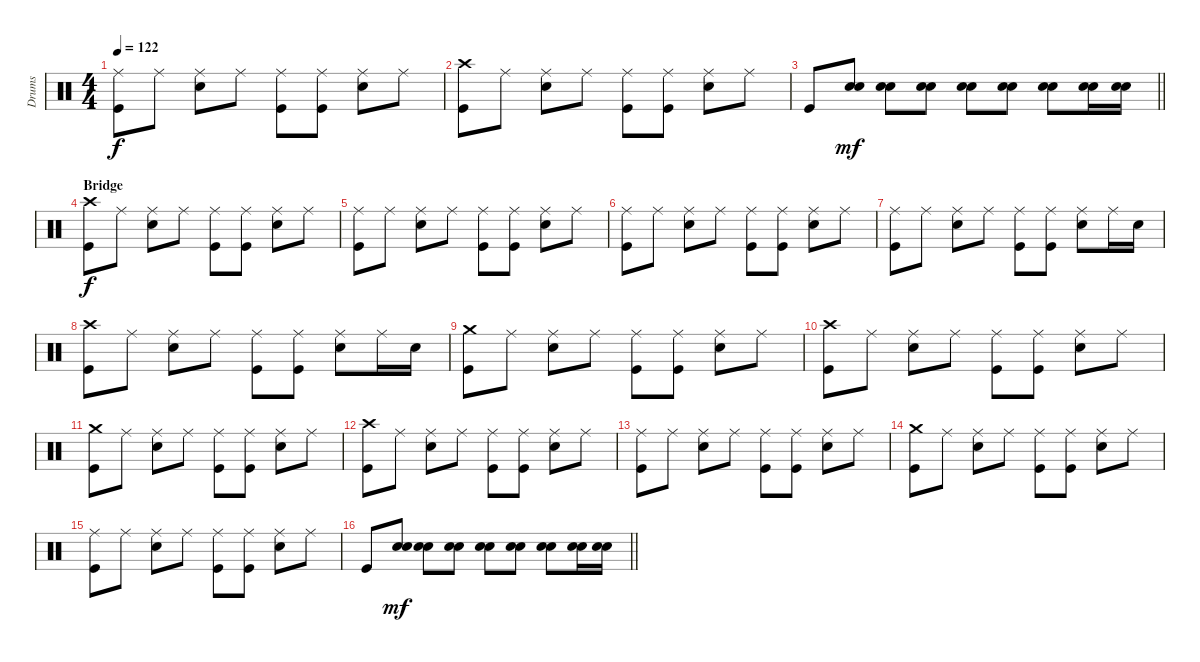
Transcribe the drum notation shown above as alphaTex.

\track ("Drums" "Drums") {instrument percussion}
\staff {score}
\articulation defaults
\ts (4 4)
\tempo 122
\clef neutral
\ks c
("Ride (middle)" "Kick (hit)").8{dy f} "Ride (middle)".8 ("Ride (middle)" "Electric Snare (hit)").8 "Ride (middle)".8 ("Ride (middle)" "Kick (hit)").8 ("Ride (middle)" "Kick (hit)").8 ("Ride (middle)" "Electric Snare (hit)").8 "Ride (middle)".8 |
("Crash high (hit)" "Kick (hit)").8 "Ride (middle)".8 ("Ride (middle)" "Electric Snare (hit)").8 "Ride (middle)".8 ("Ride (middle)" "Kick (hit)").8 ("Ride (middle)" "Kick (hit)").8 ("Ride (middle)" "Electric Snare (hit)").8 "Ride (middle)".8 |
\barLineRight lightlight "Kick (hit)".8
("Electric Snare (hit)" "Snare (hit) 2").8{dy mf} ("Electric Snare (hit)" "Snare (hit) 2").8 ("Electric Snare (hit)" "Snare (hit) 2").8 ("Electric Snare (hit)" "Snare (hit) 2").8 ("Electric Snare (hit)" "Snare (hit) 2").8 ("Electric Snare (hit)" "Snare (hit) 2").8 ("Electric Snare (hit)" "Snare (hit) 2").16 ("Electric Snare (hit)" "Snare (hit) 2").16 |
\section ("" "Bridge")
("Crash high (hit)" "Kick (hit)").8{dy f} "Ride (middle)".8 ("Ride (middle)" "Electric Snare (hit)").8 "Ride (middle)".8 ("Ride (middle)" "Kick (hit)").8 ("Ride (middle)" "Kick (hit)").8 ("Ride (middle)" "Electric Snare (hit)").8 "Ride (middle)".8 |
("Ride (middle)" "Kick (hit)").8 "Ride (middle)".8 ("Ride (middle)" "Electric Snare (hit)").8 "Ride (middle)".8 ("Ride (middle)" "Kick (hit)").8 ("Ride (middle)" "Kick (hit)").8 ("Ride (middle)" "Electric Snare (hit)").8 "Ride (middle)".8 |
("Ride (middle)" "Kick (hit)").8 "Ride (middle)".8 ("Ride (middle)" "Electric Snare (hit)").8 "Ride (middle)".8 ("Ride (middle)" "Kick (hit)").8 ("Ride (middle)" "Kick (hit)").8 ("Ride (middle)" "Electric Snare (hit)").8 "Ride (middle)".8 |
("Ride (middle)" "Kick (hit)").8 "Ride (middle)".8 ("Ride (middle)" "Electric Snare (hit)").8 "Ride (middle)".8 ("Ride (middle)" "Kick (hit)").8 ("Ride (middle)" "Kick (hit)").8 ("Ride (middle)" "Electric Snare (hit)").8 "Ride (middle)".16 "Electric Snare (hit)".16 |
("Crash high (hit)" "Kick (hit)").8 "Ride (middle)".8 ("Ride (middle)" "Electric Snare (hit)").8 "Ride (middle)".8 ("Ride (middle)" "Kick (hit)").8 ("Ride (middle)" "Kick (hit)").8 ("Ride (middle)" "Electric Snare (hit)").8 "Ride (middle)".16 "Electric Snare (hit)".16 |
("Crash medium (hit)" "Kick (hit)").8 "Ride (middle)".8 ("Ride (middle)" "Electric Snare (hit)").8 "Ride (middle)".8 ("Ride (middle)" "Kick (hit)").8 ("Ride (middle)" "Kick (hit)").8 ("Ride (middle)" "Electric Snare (hit)").8 "Ride (middle)".8 |
("Crash high (hit)" "Kick (hit)").8 "Ride (middle)".8 ("Ride (middle)" "Electric Snare (hit)").8 "Ride (middle)".8 ("Ride (middle)" "Kick (hit)").8 ("Ride (middle)" "Kick (hit)").8 ("Ride (middle)" "Electric Snare (hit)").8 "Ride (middle)".8 |
("Crash medium (hit)" "Kick (hit)").8 "Ride (middle)".8 ("Ride (middle)" "Electric Snare (hit)").8 "Ride (middle)".8 ("Ride (middle)" "Kick (hit)").8 ("Ride (middle)" "Kick (hit)").8 ("Ride (middle)" "Electric Snare (hit)").8 "Ride (middle)".8 |
("Crash high (hit)" "Kick (hit)").8 "Ride (middle)".8 ("Ride (middle)" "Electric Snare (hit)").8 "Ride (middle)".8 ("Ride (middle)" "Kick (hit)").8 ("Ride (middle)" "Kick (hit)").8 ("Ride (middle)" "Electric Snare (hit)").8 "Ride (middle)".8 |
("Ride (middle)" "Kick (hit)").8 "Ride (middle)".8 ("Ride (middle)" "Electric Snare (hit)").8 "Ride (middle)".8 ("Ride (middle)" "Kick (hit)").8 ("Ride (middle)" "Kick (hit)").8 ("Ride (middle)" "Electric Snare (hit)").8 "Ride (middle)".8 |
("Crash medium (hit)" "Kick (hit)").8 "Ride (middle)".8 ("Ride (middle)" "Electric Snare (hit)").8 "Ride (middle)".8 ("Ride (middle)" "Kick (hit)").8 ("Ride (middle)" "Kick (hit)").8 ("Ride (middle)" "Electric Snare (hit)").8 "Ride (middle)".8 |
("Ride (middle)" "Kick (hit)").8 "Ride (middle)".8 ("Ride (middle)" "Electric Snare (hit)").8 "Ride (middle)".8 ("Ride (middle)" "Kick (hit)").8 ("Ride (middle)" "Kick (hit)").8 ("Ride (middle)" "Electric Snare (hit)").8 "Ride (middle)".8 |
\barLineRight lightlight "Kick (hit)".8
("Electric Snare (hit)" "Snare (hit) 2").8{dy mf} ("Electric Snare (hit)" "Snare (hit) 2").8 ("Electric Snare (hit)" "Snare (hit) 2").8 ("Electric Snare (hit)" "Snare (hit) 2").8 ("Electric Snare (hit)" "Snare (hit) 2").8 ("Electric Snare (hit)" "Snare (hit) 2").8 ("Electric Snare (hit)" "Snare (hit) 2").16 ("Electric Snare (hit)" "Snare (hit) 2").16
